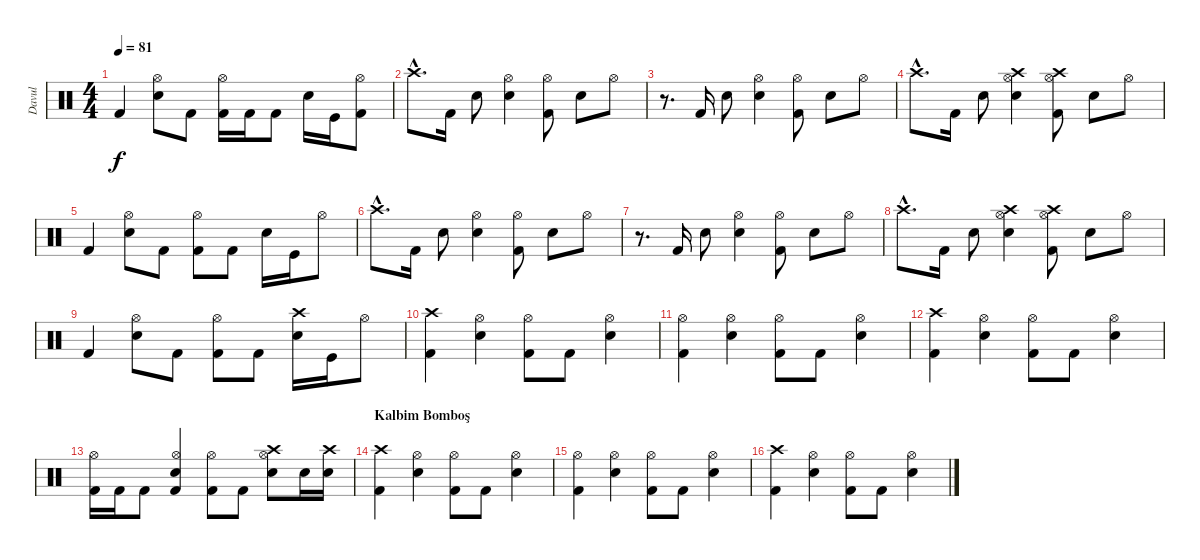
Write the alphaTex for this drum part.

\track ("Davul" "Davul") {instrument percussion}
\staff {score}
\articulation defaults
\ts (4 4)
\tempo 81
\clef neutral
\ks c "Kick (hit) 2".4{dy f}
("Hi-Hat (open)" "Snare (hit) 2").8 "Kick (hit) 2".8 ("Hi-Hat (open)" "Kick (hit) 2").16 "Kick (hit) 2".16 "Kick (hit) 2".8 "Snare (hit) 2".16 "Kick (hit)".16 ("Hi-Hat (open)" "Kick (hit) 2").8 |
"Crash high (hit)"{hac}.8{d} "Kick (hit) 2".16 "Snare (hit) 2".8 ("Hi-Hat (open)" "Snare (hit) 2").4 ("Hi-Hat (open)" "Kick (hit) 2").8 "Snare (hit) 2".8 "Hi-Hat (open)".8 |
r.8{d} "Kick (hit) 2".16 "Snare (hit) 2".8 ("Hi-Hat (open)" "Snare (hit) 2").4 ("Hi-Hat (open)" "Kick (hit) 2").8 "Snare (hit) 2".8 "Hi-Hat (open)".8 |
"Crash high (hit)"{hac}.8{d} "Kick (hit) 2".16 "Snare (hit) 2".8 ("Hi-Hat (open)" "Snare (hit) 2" "Crash high (hit)").4 ("Hi-Hat (open)" "Crash high (hit)" "Kick (hit) 2").8 "Snare (hit) 2".8 "Hi-Hat (open)".8 |
"Kick (hit) 2".4 ("Hi-Hat (open)" "Snare (hit) 2").8 "Kick (hit) 2".8 ("Hi-Hat (open)" "Kick (hit) 2").8 "Kick (hit) 2".8 "Snare (hit) 2".16 "Kick (hit)".16 "Hi-Hat (open)".8 |
"Crash high (hit)"{hac}.8{d} "Kick (hit) 2".16 "Snare (hit) 2".8 ("Hi-Hat (open)" "Snare (hit) 2").4 ("Hi-Hat (open)" "Kick (hit) 2").8 "Snare (hit) 2".8 "Hi-Hat (open)".8 |
r.8{d} "Kick (hit) 2".16 "Snare (hit) 2".8 ("Hi-Hat (open)" "Snare (hit) 2").4 ("Hi-Hat (open)" "Kick (hit) 2").8 "Snare (hit) 2".8 "Hi-Hat (open)".8 |
"Crash high (hit)"{hac}.8{d} "Kick (hit) 2".16 "Snare (hit) 2".8 ("Hi-Hat (open)" "Snare (hit) 2" "Crash high (hit)").4 ("Hi-Hat (open)" "Crash high (hit)" "Kick (hit) 2").8 "Snare (hit) 2".8 "Hi-Hat (open)".8 |
"Kick (hit) 2".4 ("Hi-Hat (open)" "Snare (hit) 2").8 "Kick (hit) 2".8 ("Hi-Hat (open)" "Kick (hit) 2").8 "Kick (hit) 2".8 ("Snare (hit) 2" "Crash high (hit)").16 "Kick (hit)".16 "Hi-Hat (open)".8 |
("Crash high (hit)" "Kick (hit) 2").4 ("Hi-Hat (open)" "Snare (hit) 2").4 ("Hi-Hat (open)" "Kick (hit) 2").8 "Kick (hit) 2".8 ("Hi-Hat (open)" "Snare (hit) 2").4 |
("Hi-Hat (open)" "Kick (hit) 2").4 ("Hi-Hat (open)" "Snare (hit) 2").4 ("Hi-Hat (open)" "Kick (hit) 2").8 "Kick (hit) 2".8 ("Hi-Hat (open)" "Snare (hit) 2").4 |
("Crash high (hit)" "Kick (hit) 2").4 ("Hi-Hat (open)" "Snare (hit) 2").4 ("Hi-Hat (open)" "Kick (hit) 2").8 "Kick (hit) 2".8 ("Hi-Hat (open)" "Snare (hit) 2").4 |
("Hi-Hat (open)" "Kick (hit) 2").16 "Kick (hit) 2".16 "Kick (hit) 2".8 ("Hi-Hat (open)" "Snare (hit) 2" "Kick (hit) 2").4 ("Hi-Hat (open)" "Kick (hit) 2").8 "Kick (hit) 2".8 ("Hi-Hat (open)" "Snare (hit) 2" "Crash high (hit)").8 "Snare (hit) 2".16 ("Snare (hit) 2" "Crash high (hit)").16 |
\section ("" "Kalbim Bomboş")
("Crash high (hit)" "Kick (hit) 2").4 ("Hi-Hat (open)" "Snare (hit) 2").4 ("Hi-Hat (open)" "Kick (hit) 2").8 "Kick (hit) 2".8 ("Hi-Hat (open)" "Snare (hit) 2").4 |
("Hi-Hat (open)" "Kick (hit) 2").4 ("Hi-Hat (open)" "Snare (hit) 2").4 ("Hi-Hat (open)" "Kick (hit) 2").8 "Kick (hit) 2".8 ("Hi-Hat (open)" "Snare (hit) 2").4 |
("Crash high (hit)" "Kick (hit) 2").4 ("Hi-Hat (open)" "Snare (hit) 2").4 ("Hi-Hat (open)" "Kick (hit) 2").8 "Kick (hit) 2".8 ("Hi-Hat (open)" "Snare (hit) 2").4
